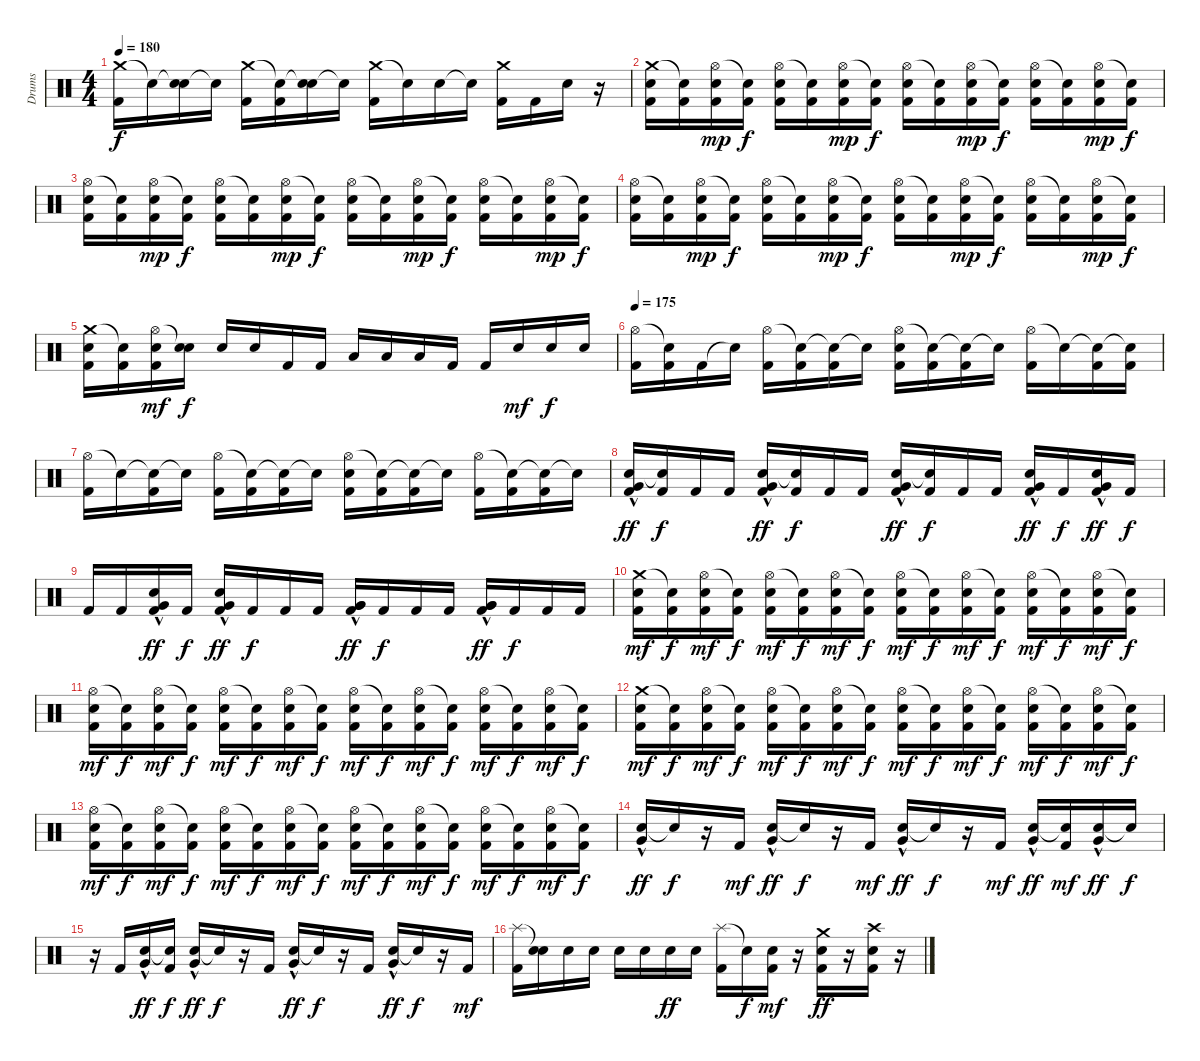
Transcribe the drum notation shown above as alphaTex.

\track ("Drums" "Drums") {instrument percussion}
\staff {score}
\articulation defaults
\ts (4 4)
\tempo 180
\clef neutral
\ks c
("Crash medium (hit)" "Kick (hit) 2").16{dy f} "Snare (hit)"{t}.16 ("Snare (hit)"{t} "Electric Snare (hit)").16 "Snare (hit)"{t}.16 ("Crash medium (hit)" "Kick (hit) 2").16 ("Snare (hit)"{t} "Kick (hit) 2").16 ("Snare (hit)"{t} "Electric Snare (hit)").16 "Snare (hit)"{t}.16 ("Crash medium (hit)" "Kick (hit) 2").16 "Snare (hit)"{t}.16 "Electric Snare (hit)".16 "Snare (hit)"{t}.16 ("Crash medium (hit)" "Kick (hit) 2").16 "Kick (hit) 2".16 "Electric Snare (hit)".16 r.16 |
("Crash medium (hit)" "Electric Snare (hit)" "Kick (hit) 2").16 ("Snare (hit)"{t} "Kick (hit) 2").16 ("Hi-Hat (open)" "Electric Snare (hit)" "Kick (hit) 2").16{dy mp} ("Snare (hit)"{t} "Kick (hit) 2").16{dy f} ("Hi-Hat (open)" "Electric Snare (hit)" "Kick (hit) 2").16 ("Snare (hit)"{t} "Kick (hit) 2").16 ("Hi-Hat (open)" "Electric Snare (hit)" "Kick (hit) 2").16{dy mp} ("Snare (hit)"{t} "Kick (hit) 2").16{dy f} ("Hi-Hat (open)" "Electric Snare (hit)" "Kick (hit) 2").16 ("Snare (hit)"{t} "Kick (hit) 2").16 ("Hi-Hat (open)" "Electric Snare (hit)" "Kick (hit) 2").16{dy mp} ("Snare (hit)"{t} "Kick (hit) 2").16{dy f} ("Hi-Hat (open)" "Electric Snare (hit)" "Kick (hit) 2").16 ("Snare (hit)"{t} "Kick (hit) 2").16 ("Hi-Hat (open)" "Electric Snare (hit)" "Kick (hit) 2").16{dy mp} ("Snare (hit)"{t} "Kick (hit) 2").16{dy f} |
("Hi-Hat (open)" "Electric Snare (hit)" "Kick (hit) 2").16 ("Snare (hit)"{t} "Kick (hit) 2").16 ("Hi-Hat (open)" "Electric Snare (hit)" "Kick (hit) 2").16{dy mp} ("Snare (hit)"{t} "Kick (hit) 2").16{dy f} ("Hi-Hat (open)" "Electric Snare (hit)" "Kick (hit) 2").16 ("Snare (hit)"{t} "Kick (hit) 2").16 ("Hi-Hat (open)" "Electric Snare (hit)" "Kick (hit) 2").16{dy mp} ("Snare (hit)"{t} "Kick (hit) 2").16{dy f} ("Hi-Hat (open)" "Electric Snare (hit)" "Kick (hit) 2").16 ("Snare (hit)"{t} "Kick (hit) 2").16 ("Hi-Hat (open)" "Electric Snare (hit)" "Kick (hit) 2").16{dy mp} ("Snare (hit)"{t} "Kick (hit) 2").16{dy f} ("Hi-Hat (open)" "Electric Snare (hit)" "Kick (hit) 2").16 ("Snare (hit)"{t} "Kick (hit) 2").16 ("Hi-Hat (open)" "Electric Snare (hit)" "Kick (hit) 2").16{dy mp} ("Snare (hit)"{t} "Kick (hit) 2").16{dy f} |
("Hi-Hat (open)" "Electric Snare (hit)" "Kick (hit) 2").16 ("Snare (hit)"{t} "Kick (hit) 2").16 ("Hi-Hat (open)" "Electric Snare (hit)" "Kick (hit) 2").16{dy mp} ("Snare (hit)"{t} "Kick (hit) 2").16{dy f} ("Hi-Hat (open)" "Electric Snare (hit)" "Kick (hit) 2").16 ("Snare (hit)"{t} "Kick (hit) 2").16 ("Hi-Hat (open)" "Electric Snare (hit)" "Kick (hit) 2").16{dy mp} ("Snare (hit)"{t} "Kick (hit) 2").16{dy f} ("Hi-Hat (open)" "Electric Snare (hit)" "Kick (hit) 2").16 ("Snare (hit)"{t} "Kick (hit) 2").16 ("Hi-Hat (open)" "Electric Snare (hit)" "Kick (hit) 2").16{dy mp} ("Snare (hit)"{t} "Kick (hit) 2").16{dy f} ("Hi-Hat (open)" "Electric Snare (hit)" "Kick (hit) 2").16 ("Snare (hit)"{t} "Kick (hit) 2").16 ("Hi-Hat (open)" "Electric Snare (hit)" "Kick (hit) 2").16{dy mp} ("Snare (hit)"{t} "Kick (hit) 2").16{dy f} |
("Crash medium (hit)" "Electric Snare (hit)" "Kick (hit) 2").16 ("Snare (hit)"{t} "Kick (hit) 2").16 ("Hi-Hat (open)" "Electric Snare (hit)" "Kick (hit) 2").16{dy mf} ("Snare (hit)"{t} "Electric Snare (hit)").16{dy f} "Electric Snare (hit)".16 "Electric Snare (hit)".16 "Kick (hit) 2".16 "Kick (hit) 2".16 "Low Tom (hit)".16 "Low Tom (hit)".16 "Low Tom (hit)".16 "Kick (hit) 2".16 "Kick (hit) 2".16 "Electric Snare (hit)".16{dy mf} "Electric Snare (hit)".16{dy f} "Electric Snare (hit)".16 |
\tempo 175
("Hi-Hat (open)" "Kick (hit) 2").16 ("Snare (hit)"{t} "Kick (hit) 2").16 "Kick (hit) 2".16 "Snare (hit)"{t}.16 ("Hi-Hat (open)" "Kick (hit) 2").16 ("Snare (hit)"{t} "Kick (hit) 2").16 ("Snare (hit)"{t} "Kick (hit) 2").16 "Snare (hit)"{t}.16 ("Hi-Hat (open)" "Electric Snare (hit)" "Kick (hit) 2").16 ("Snare (hit)"{t} "Kick (hit) 2").16 ("Snare (hit)"{t} "Kick (hit) 2").16 "Snare (hit)"{t}.16 ("Hi-Hat (open)" "Kick (hit) 2").16 "Snare (hit)"{t}.16 ("Snare (hit)"{t} "Kick (hit) 2").16 ("Snare (hit)"{t} "Kick (hit) 2").16 |
("Hi-Hat (open)" "Kick (hit) 2").16 "Snare (hit)"{t}.16 ("Snare (hit)"{t} "Kick (hit) 2").16 "Snare (hit)"{t}.16 ("Hi-Hat (open)" "Kick (hit) 2").16 ("Snare (hit)"{t} "Kick (hit) 2").16 ("Snare (hit)"{t} "Kick (hit) 2").16 "Snare (hit)"{t}.16 ("Hi-Hat (open)" "Electric Snare (hit)" "Kick (hit) 2").16 ("Snare (hit)"{t} "Kick (hit) 2").16 ("Snare (hit)"{t} "Kick (hit) 2").16 "Snare (hit)"{t}.16 ("Hi-Hat (open)" "Kick (hit) 2").16 ("Snare (hit)"{t} "Kick (hit) 2").16 ("Snare (hit)"{t} "Kick (hit) 2").16 "Snare (hit)"{t}.16 |
("Electric Snare (hit)"{hac} "Very Low Tom (hit)" "Kick (hit) 2").16{dy ff} ("Snare (hit)"{t} "Kick (hit) 2").16{dy f} "Kick (hit) 2".16 "Kick (hit) 2".16 ("Electric Snare (hit)"{hac} "Very Low Tom (hit)"{hac} "Kick (hit) 2").16{dy ff} ("Snare (hit)"{t} "Kick (hit) 2").16{dy f} "Kick (hit) 2".16 "Kick (hit) 2".16 ("Electric Snare (hit)"{hac} "Very Low Tom (hit)"{hac} "Kick (hit) 2").16{dy ff} ("Snare (hit)"{t} "Kick (hit) 2").16{dy f} "Kick (hit) 2".16 "Kick (hit) 2".16 ("Electric Snare (hit)"{hac} "Very Low Tom (hit)"{hac} "Kick (hit) 2").16{dy ff} "Kick (hit) 2".16{dy f} ("Electric Snare (hit)"{hac} "Very Low Tom (hit)"{hac} "Kick (hit) 2").16{dy ff} "Kick (hit) 2".16{dy f} |
"Kick (hit) 2".16 "Kick (hit) 2".16 ("Electric Snare (hit)"{hac} "Very Low Tom (hit)"{hac} "Kick (hit) 2").16{dy ff} "Kick (hit) 2".16{dy f} ("Electric Snare (hit)"{hac} "Very Low Tom (hit)"{hac} "Kick (hit) 2").16{dy ff} "Kick (hit) 2".16{dy f} "Kick (hit) 2".16 "Kick (hit) 2".16 ("Very Low Tom (hit)"{hac} "Very Low Tom (hit)"{hac} "Kick (hit) 2").16{dy ff} "Kick (hit) 2".16{dy f} "Kick (hit) 2".16 "Kick (hit) 2".16 ("Very Low Tom (hit)"{hac} "Very Low Tom (hit)"{hac} "Kick (hit) 2").16{dy ff} "Kick (hit) 2".16{dy f} "Kick (hit) 2".16 "Kick (hit) 2".16 |
("Crash medium (hit)" "Electric Snare (hit)" "Kick (hit) 2").16{dy mf} ("Snare (hit)"{t} "Kick (hit) 2").16{dy f} ("Hi-Hat (open)" "Electric Snare (hit)" "Kick (hit) 2").16{dy mf} ("Snare (hit)"{t} "Kick (hit) 2").16{dy f} ("Hi-Hat (open)" "Electric Snare (hit)" "Kick (hit) 2").16{dy mf} ("Snare (hit)"{t} "Kick (hit) 2").16{dy f} ("Hi-Hat (open)" "Electric Snare (hit)" "Kick (hit) 2").16{dy mf} ("Snare (hit)"{t} "Kick (hit) 2").16{dy f} ("Hi-Hat (open)" "Electric Snare (hit)" "Kick (hit) 2").16{dy mf} ("Snare (hit)"{t} "Kick (hit) 2").16{dy f} ("Hi-Hat (open)" "Electric Snare (hit)" "Kick (hit) 2").16{dy mf} ("Snare (hit)"{t} "Kick (hit) 2").16{dy f} ("Hi-Hat (open)" "Electric Snare (hit)" "Kick (hit) 2").16{dy mf} ("Snare (hit)"{t} "Kick (hit) 2").16{dy f} ("Hi-Hat (open)" "Electric Snare (hit)" "Kick (hit) 2").16{dy mf} ("Snare (hit)"{t} "Kick (hit) 2").16{dy f} |
("Hi-Hat (open)" "Electric Snare (hit)" "Kick (hit) 2").16{dy mf} ("Snare (hit)"{t} "Kick (hit) 2").16{dy f} ("Hi-Hat (open)" "Electric Snare (hit)" "Kick (hit) 2").16{dy mf} ("Snare (hit)"{t} "Kick (hit) 2").16{dy f} ("Hi-Hat (open)" "Electric Snare (hit)" "Kick (hit) 2").16{dy mf} ("Snare (hit)"{t} "Kick (hit) 2").16{dy f} ("Hi-Hat (open)" "Electric Snare (hit)" "Kick (hit) 2").16{dy mf} ("Snare (hit)"{t} "Kick (hit) 2").16{dy f} ("Hi-Hat (open)" "Electric Snare (hit)" "Kick (hit) 2").16{dy mf} ("Snare (hit)"{t} "Kick (hit) 2").16{dy f} ("Hi-Hat (open)" "Electric Snare (hit)" "Kick (hit) 2").16{dy mf} ("Snare (hit)"{t} "Kick (hit) 2").16{dy f} ("Hi-Hat (open)" "Electric Snare (hit)" "Kick (hit) 2").16{dy mf} ("Snare (hit)"{t} "Kick (hit) 2").16{dy f} ("Hi-Hat (open)" "Electric Snare (hit)" "Kick (hit) 2").16{dy mf} ("Snare (hit)"{t} "Kick (hit) 2").16{dy f} |
("Crash medium (hit)" "Electric Snare (hit)" "Kick (hit) 2").16{dy mf} ("Snare (hit)"{t} "Kick (hit) 2").16{dy f} ("Hi-Hat (open)" "Electric Snare (hit)" "Kick (hit) 2").16{dy mf} ("Snare (hit)"{t} "Kick (hit) 2").16{dy f} ("Hi-Hat (open)" "Electric Snare (hit)" "Kick (hit) 2").16{dy mf} ("Snare (hit)"{t} "Kick (hit) 2").16{dy f} ("Hi-Hat (open)" "Electric Snare (hit)" "Kick (hit) 2").16{dy mf} ("Snare (hit)"{t} "Kick (hit) 2").16{dy f} ("Hi-Hat (open)" "Electric Snare (hit)" "Kick (hit) 2").16{dy mf} ("Snare (hit)"{t} "Kick (hit) 2").16{dy f} ("Hi-Hat (open)" "Electric Snare (hit)" "Kick (hit) 2").16{dy mf} ("Snare (hit)"{t} "Kick (hit) 2").16{dy f} ("Hi-Hat (open)" "Electric Snare (hit)" "Kick (hit) 2").16{dy mf} ("Snare (hit)"{t} "Kick (hit) 2").16{dy f} ("Hi-Hat (open)" "Electric Snare (hit)" "Kick (hit) 2").16{dy mf} ("Snare (hit)"{t} "Kick (hit) 2").16{dy f} |
("Hi-Hat (open)" "Electric Snare (hit)" "Kick (hit) 2").16{dy mf} ("Snare (hit)"{t} "Kick (hit) 2").16{dy f} ("Hi-Hat (open)" "Electric Snare (hit)" "Kick (hit) 2").16{dy mf} ("Snare (hit)"{t} "Kick (hit) 2").16{dy f} ("Hi-Hat (open)" "Electric Snare (hit)" "Kick (hit) 2").16{dy mf} ("Snare (hit)"{t} "Kick (hit) 2").16{dy f} ("Hi-Hat (open)" "Electric Snare (hit)" "Kick (hit) 2").16{dy mf} ("Snare (hit)"{t} "Kick (hit) 2").16{dy f} ("Hi-Hat (open)" "Electric Snare (hit)" "Kick (hit) 2").16{dy mf} ("Snare (hit)"{t} "Kick (hit) 2").16{dy f} ("Hi-Hat (open)" "Electric Snare (hit)" "Kick (hit) 2").16{dy mf} ("Snare (hit)"{t} "Kick (hit) 2").16{dy f} ("Hi-Hat (open)" "Electric Snare (hit)" "Kick (hit) 2").16{dy mf} ("Snare (hit)"{t} "Kick (hit) 2").16{dy f} ("Hi-Hat (open)" "Electric Snare (hit)" "Kick (hit) 2").16{dy mf} ("Snare (hit)"{t} "Kick (hit) 2").16{dy f} |
("Electric Snare (hit)"{hac} "Very Low Tom (hit)"{hac}).16{dy ff} "Snare (hit)"{t}.16{dy f} r.16 "Kick (hit) 2".16{dy mf} ("Electric Snare (hit)"{hac} "Very Low Tom (hit)"{hac}).16{dy ff} "Snare (hit)"{t}.16{dy f} r.16 "Kick (hit) 2".16{dy mf} ("Electric Snare (hit)"{hac} "Very Low Tom (hit)"{hac}).16{dy ff} "Snare (hit)"{t}.16{dy f} r.16 "Kick (hit) 2".16{dy mf} ("Electric Snare (hit)"{hac} "Very Low Tom (hit)"{hac}).16{dy ff} ("Snare (hit)"{t} "Kick (hit) 2").16{dy mf} ("Electric Snare (hit)"{hac} "Very Low Tom (hit)").16{dy ff} "Snare (hit)"{t}.16{dy f} |
r.16 "Kick (hit) 2".16 ("Electric Snare (hit)"{hac} "Very Low Tom (hit)"{hac}).16{dy ff} ("Snare (hit)"{t} "Kick (hit) 2").16{dy f} ("Electric Snare (hit)"{hac} "Very Low Tom (hit)"{hac}).16{dy ff} "Snare (hit)"{t}.16{dy f} r.16 "Kick (hit) 2".16 ("Electric Snare (hit)"{hac} "Very Low Tom (hit)"{hac}).16{dy ff} "Snare (hit)"{t}.16{dy f} r.16 "Kick (hit) 2".16 ("Electric Snare (hit)"{hac} "Very Low Tom (hit)"{hac}).16{dy ff} "Snare (hit)"{t}.16{dy f} r.16 "Kick (hit) 2".16{dy mf} |
("Splash (hit)" "Kick (hit) 2").16 ("Snare (hit)"{t} "Electric Snare (hit)").16 "Electric Snare (hit)".16 "Electric Snare (hit)".16 "Electric Snare (hit)".16 "Electric Snare (hit)".16 "Electric Snare (hit)".16{dy ff} "Electric Snare (hit)".16 ("Splash (hit)" "Kick (hit) 2").16 "Snare (hit)"{t}.16{dy f} ("Electric Snare (hit)" "Kick (hit) 2").16{dy mf} r.16 ("Crash medium (hit)" "Electric Snare (hit)" "Kick (hit) 2").16{dy ff} r.16 ("Crash high (hit)" "Electric Snare (hit)" "Kick (hit) 2").16 r.16
